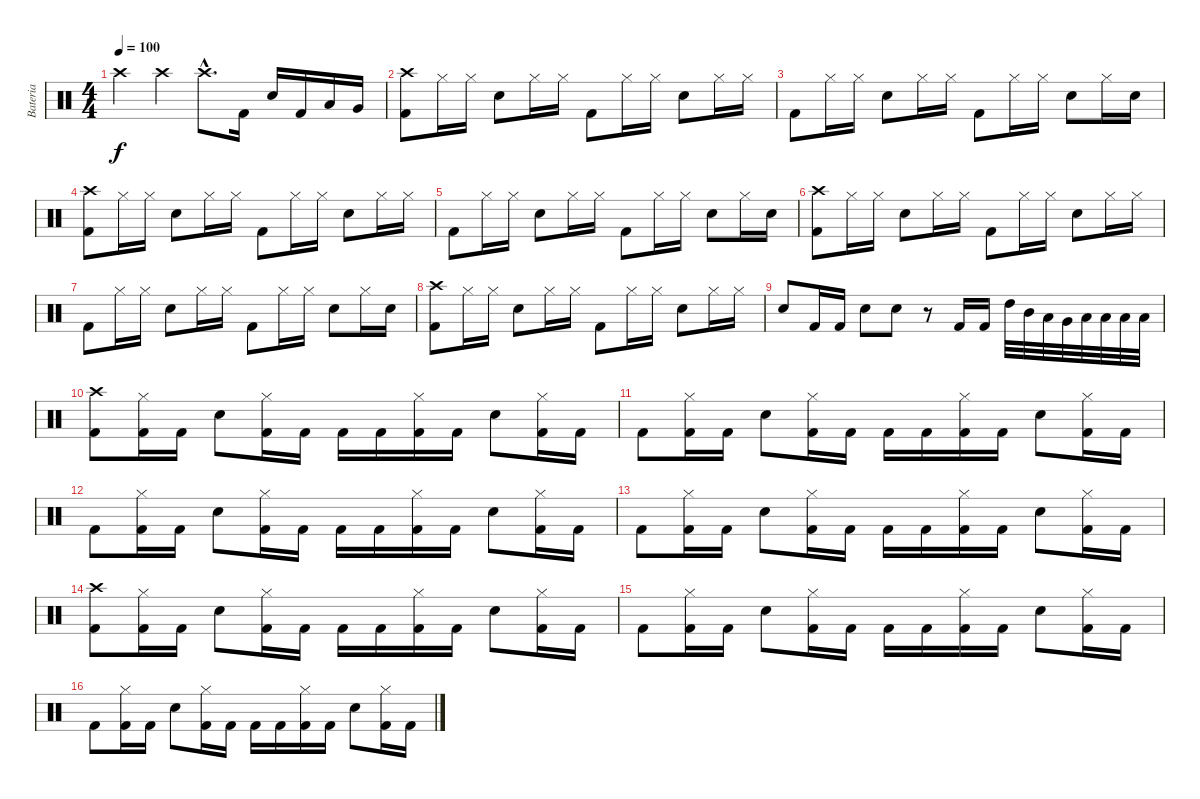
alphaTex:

\track ("Bateria" "Bateria") {instrument percussion}
\staff {score}
\articulation defaults
\ts (4 4)
\tempo 100
\clef neutral
\ks c "Crash high (hit)".4{dy f} "Crash high (hit)".4 "Crash high (hit)"{hac}.8{d} "Kick (hit) 2".16 "Electric Snare (hit)".16 "Kick (hit) 2".16 "Low Tom (hit)".16 "Very Low Tom (hit)".16
|
("Crash high (hit)" "Kick (hit) 2").8 "Hi-Hat (closed)".16 "Hi-Hat (closed)".16 "Electric Snare (hit)".8 "Hi-Hat (closed)".16 "Hi-Hat (closed)".16 "Kick (hit) 2".8 "Hi-Hat (closed)".16 "Hi-Hat (closed)".16 "Electric Snare (hit)".8 "Hi-Hat (closed)".16 "Hi-Hat (closed)".16 |
"Kick (hit) 2".8 "Hi-Hat (closed)".16 "Hi-Hat (closed)".16 "Electric Snare (hit)".8 "Hi-Hat (closed)".16 "Hi-Hat (closed)".16 "Kick (hit) 2".8 "Hi-Hat (closed)".16 "Hi-Hat (closed)".16 "Electric Snare (hit)".8 "Hi-Hat (closed)".16 "Electric Snare (hit)".16 |
("Crash high (hit)" "Kick (hit) 2").8 "Hi-Hat (closed)".16 "Hi-Hat (closed)".16 "Electric Snare (hit)".8 "Hi-Hat (closed)".16 "Hi-Hat (closed)".16 "Kick (hit) 2".8 "Hi-Hat (closed)".16 "Hi-Hat (closed)".16 "Electric Snare (hit)".8 "Hi-Hat (closed)".16 "Hi-Hat (closed)".16 |
"Kick (hit) 2".8 "Hi-Hat (closed)".16 "Hi-Hat (closed)".16 "Electric Snare (hit)".8 "Hi-Hat (closed)".16 "Hi-Hat (closed)".16 "Kick (hit) 2".8 "Hi-Hat (closed)".16 "Hi-Hat (closed)".16 "Electric Snare (hit)".8 "Hi-Hat (closed)".16 "Electric Snare (hit)".16 |
("Crash high (hit)" "Kick (hit) 2").8 "Hi-Hat (closed)".16 "Hi-Hat (closed)".16 "Electric Snare (hit)".8 "Hi-Hat (closed)".16 "Hi-Hat (closed)".16 "Kick (hit) 2".8 "Hi-Hat (closed)".16 "Hi-Hat (closed)".16 "Electric Snare (hit)".8 "Hi-Hat (closed)".16 "Hi-Hat (closed)".16 |
"Kick (hit) 2".8 "Hi-Hat (closed)".16 "Hi-Hat (closed)".16 "Electric Snare (hit)".8 "Hi-Hat (closed)".16 "Hi-Hat (closed)".16 "Kick (hit) 2".8 "Hi-Hat (closed)".16 "Hi-Hat (closed)".16 "Electric Snare (hit)".8 "Hi-Hat (closed)".16 "Electric Snare (hit)".16 |
("Crash high (hit)" "Kick (hit) 2").8 "Hi-Hat (closed)".16 "Hi-Hat (closed)".16 "Electric Snare (hit)".8 "Hi-Hat (closed)".16 "Hi-Hat (closed)".16 "Kick (hit) 2".8 "Hi-Hat (closed)".16 "Hi-Hat (closed)".16 "Electric Snare (hit)".8 "Hi-Hat (closed)".16 "Hi-Hat (closed)".16 |
"Electric Snare (hit)".8 "Kick (hit) 2".16 "Kick (hit) 2".16 "Electric Snare (hit)".8 "Electric Snare (hit)".8 r.8 "Kick (hit) 2".16 "Kick (hit) 2".16 "High Tom (hit)".32 "Mid Tom (hit)".32 "Low Tom (hit)".32 "Very Low Tom (hit)".32 "Low Floor Tom (hit)".32 "Low Floor Tom (hit)".32 "Low Floor Tom (hit)".32 "Low Floor Tom (hit)".32 |
("Crash high (hit)" "Kick (hit) 2").8 ("Hi-Hat (closed)" "Kick (hit) 2").16 "Kick (hit) 2".16 "Electric Snare (hit)".8 ("Hi-Hat (closed)" "Kick (hit) 2").16 "Kick (hit) 2".16 "Kick (hit) 2".16 "Kick (hit) 2".16 ("Hi-Hat (closed)" "Kick (hit) 2").16 "Kick (hit) 2".16 "Electric Snare (hit)".8 ("Hi-Hat (closed)" "Kick (hit) 2").16 "Kick (hit) 2".16 |
"Kick (hit) 2".8 ("Hi-Hat (closed)" "Kick (hit) 2").16 "Kick (hit) 2".16 "Electric Snare (hit)".8 ("Hi-Hat (closed)" "Kick (hit) 2").16 "Kick (hit) 2".16 "Kick (hit) 2".16 "Kick (hit) 2".16 ("Hi-Hat (closed)" "Kick (hit) 2").16 "Kick (hit) 2".16 "Electric Snare (hit)".8 ("Hi-Hat (closed)" "Kick (hit) 2").16 "Kick (hit) 2".16 |
"Kick (hit) 2".8 ("Hi-Hat (closed)" "Kick (hit) 2").16 "Kick (hit) 2".16 "Electric Snare (hit)".8 ("Hi-Hat (closed)" "Kick (hit) 2").16 "Kick (hit) 2".16 "Kick (hit) 2".16 "Kick (hit) 2".16 ("Hi-Hat (closed)" "Kick (hit) 2").16 "Kick (hit) 2".16 "Electric Snare (hit)".8 ("Hi-Hat (closed)" "Kick (hit) 2").16 "Kick (hit) 2".16 |
"Kick (hit) 2".8 ("Hi-Hat (closed)" "Kick (hit) 2").16 "Kick (hit) 2".16 "Electric Snare (hit)".8 ("Hi-Hat (closed)" "Kick (hit) 2").16 "Kick (hit) 2".16 "Kick (hit) 2".16 "Kick (hit) 2".16 ("Hi-Hat (closed)" "Kick (hit) 2").16 "Kick (hit) 2".16 "Electric Snare (hit)".8 ("Hi-Hat (closed)" "Kick (hit) 2").16 "Kick (hit) 2".16 |
("Crash high (hit)" "Kick (hit) 2").8 ("Hi-Hat (closed)" "Kick (hit) 2").16 "Kick (hit) 2".16 "Electric Snare (hit)".8 ("Hi-Hat (closed)" "Kick (hit) 2").16 "Kick (hit) 2".16 "Kick (hit) 2".16 "Kick (hit) 2".16 ("Hi-Hat (closed)" "Kick (hit) 2").16 "Kick (hit) 2".16 "Electric Snare (hit)".8 ("Hi-Hat (closed)" "Kick (hit) 2").16 "Kick (hit) 2".16 |
"Kick (hit) 2".8 ("Hi-Hat (closed)" "Kick (hit) 2").16 "Kick (hit) 2".16 "Electric Snare (hit)".8 ("Hi-Hat (closed)" "Kick (hit) 2").16 "Kick (hit) 2".16 "Kick (hit) 2".16 "Kick (hit) 2".16 ("Hi-Hat (closed)" "Kick (hit) 2").16 "Kick (hit) 2".16 "Electric Snare (hit)".8 ("Hi-Hat (closed)" "Kick (hit) 2").16 "Kick (hit) 2".16 |
"Kick (hit) 2".8 ("Hi-Hat (closed)" "Kick (hit) 2").16 "Kick (hit) 2".16 "Electric Snare (hit)".8 ("Hi-Hat (closed)" "Kick (hit) 2").16 "Kick (hit) 2".16 "Kick (hit) 2".16 "Kick (hit) 2".16 ("Hi-Hat (closed)" "Kick (hit) 2").16 "Kick (hit) 2".16 "Electric Snare (hit)".8 ("Hi-Hat (closed)" "Kick (hit) 2").16 "Kick (hit) 2".16
